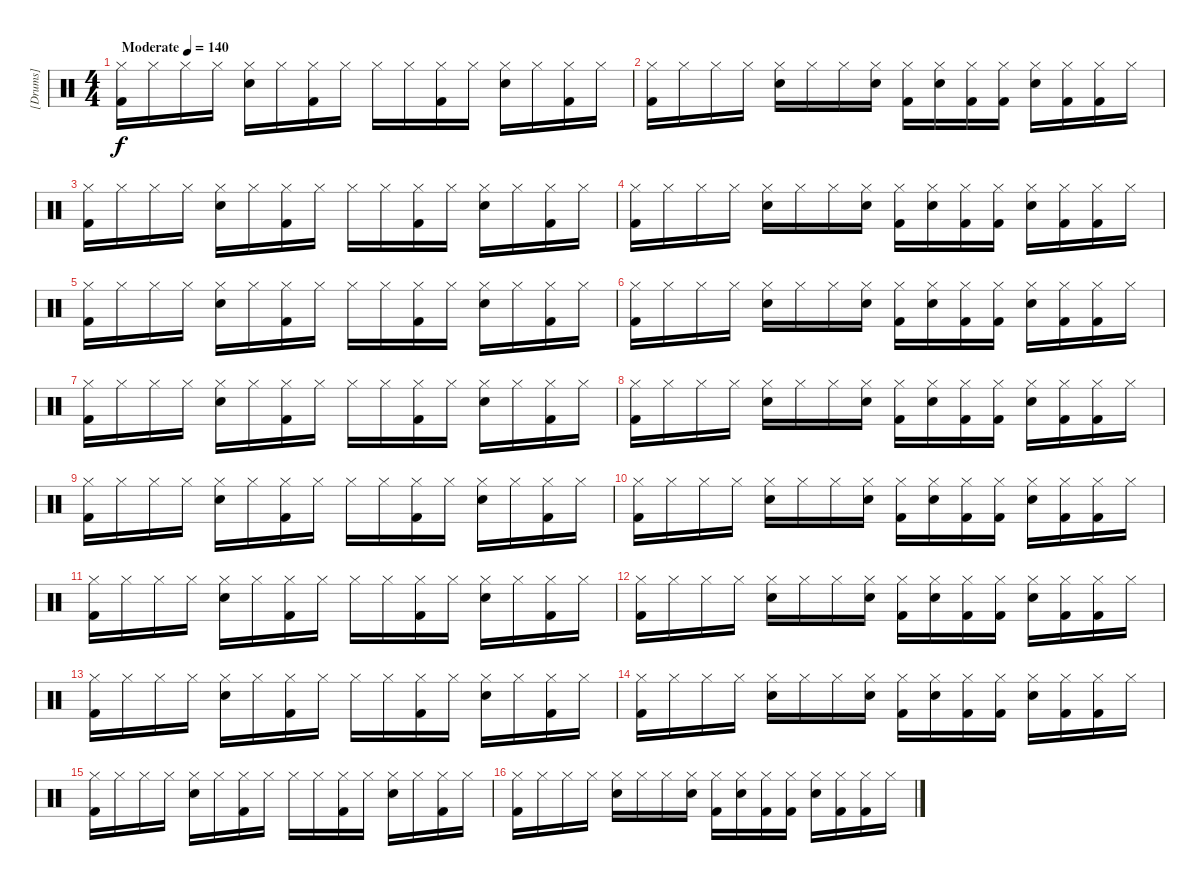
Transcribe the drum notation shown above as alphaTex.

\track ("[Drums]" "[Drums]") {instrument percussion}
\staff {score}
\articulation defaults
\ts (4 4)
\tempo (140 "Moderate")
\clef neutral
\ks c
("Hi-Hat (closed)" "Kick (hit) 2").16{dy f} "Hi-Hat (closed)".16 "Hi-Hat (closed)".16 "Hi-Hat (closed)".16 ("Hi-Hat (closed)" "Electric Snare (hit)").16 "Hi-Hat (closed)".16 ("Hi-Hat (closed)" "Kick (hit) 2").16 "Hi-Hat (closed)".16 "Hi-Hat (closed)".16 "Hi-Hat (closed)".16 ("Hi-Hat (closed)" "Kick (hit) 2").16 "Hi-Hat (closed)".16 ("Hi-Hat (closed)" "Electric Snare (hit)").16 "Hi-Hat (closed)".16 ("Hi-Hat (closed)" "Kick (hit) 2").16 "Hi-Hat (closed)".16 |
("Hi-Hat (closed)" "Kick (hit) 2").16 "Hi-Hat (closed)".16 "Hi-Hat (closed)".16 "Hi-Hat (closed)".16 ("Hi-Hat (closed)" "Electric Snare (hit)").16 "Hi-Hat (closed)".16 "Hi-Hat (closed)".16 ("Hi-Hat (closed)" "Electric Snare (hit)").16 ("Hi-Hat (closed)" "Kick (hit) 2").16 ("Hi-Hat (closed)" "Electric Snare (hit)").16 ("Hi-Hat (closed)" "Kick (hit) 2").16 ("Hi-Hat (closed)" "Kick (hit) 2").16 ("Hi-Hat (closed)" "Electric Snare (hit)").16 ("Hi-Hat (closed)" "Kick (hit) 2").16 ("Hi-Hat (closed)" "Kick (hit) 2").16 "Hi-Hat (closed)".16 |
("Hi-Hat (closed)" "Kick (hit) 2").16 "Hi-Hat (closed)".16 "Hi-Hat (closed)".16 "Hi-Hat (closed)".16 ("Hi-Hat (closed)" "Electric Snare (hit)").16 "Hi-Hat (closed)".16 ("Hi-Hat (closed)" "Kick (hit) 2").16 "Hi-Hat (closed)".16 "Hi-Hat (closed)".16 "Hi-Hat (closed)".16 ("Hi-Hat (closed)" "Kick (hit) 2").16 "Hi-Hat (closed)".16 ("Hi-Hat (closed)" "Electric Snare (hit)").16 "Hi-Hat (closed)".16 ("Hi-Hat (closed)" "Kick (hit) 2").16 "Hi-Hat (closed)".16 |
("Hi-Hat (closed)" "Kick (hit) 2").16 "Hi-Hat (closed)".16 "Hi-Hat (closed)".16 "Hi-Hat (closed)".16 ("Hi-Hat (closed)" "Electric Snare (hit)").16 "Hi-Hat (closed)".16 "Hi-Hat (closed)".16 ("Hi-Hat (closed)" "Electric Snare (hit)").16 ("Hi-Hat (closed)" "Kick (hit) 2").16 ("Hi-Hat (closed)" "Electric Snare (hit)").16 ("Hi-Hat (closed)" "Kick (hit) 2").16 ("Hi-Hat (closed)" "Kick (hit) 2").16 ("Hi-Hat (closed)" "Electric Snare (hit)").16 ("Hi-Hat (closed)" "Kick (hit) 2").16 ("Hi-Hat (closed)" "Kick (hit) 2").16 "Hi-Hat (closed)".16 |
("Hi-Hat (closed)" "Kick (hit) 2").16 "Hi-Hat (closed)".16 "Hi-Hat (closed)".16 "Hi-Hat (closed)".16 ("Hi-Hat (closed)" "Electric Snare (hit)").16 "Hi-Hat (closed)".16 ("Hi-Hat (closed)" "Kick (hit) 2").16 "Hi-Hat (closed)".16 "Hi-Hat (closed)".16 "Hi-Hat (closed)".16 ("Hi-Hat (closed)" "Kick (hit) 2").16 "Hi-Hat (closed)".16 ("Hi-Hat (closed)" "Electric Snare (hit)").16 "Hi-Hat (closed)".16 ("Hi-Hat (closed)" "Kick (hit) 2").16 "Hi-Hat (closed)".16 |
("Hi-Hat (closed)" "Kick (hit) 2").16 "Hi-Hat (closed)".16 "Hi-Hat (closed)".16 "Hi-Hat (closed)".16 ("Hi-Hat (closed)" "Electric Snare (hit)").16 "Hi-Hat (closed)".16 "Hi-Hat (closed)".16 ("Hi-Hat (closed)" "Electric Snare (hit)").16 ("Hi-Hat (closed)" "Kick (hit) 2").16 ("Hi-Hat (closed)" "Electric Snare (hit)").16 ("Hi-Hat (closed)" "Kick (hit) 2").16 ("Hi-Hat (closed)" "Kick (hit) 2").16 ("Hi-Hat (closed)" "Electric Snare (hit)").16 ("Hi-Hat (closed)" "Kick (hit) 2").16 ("Hi-Hat (closed)" "Kick (hit) 2").16 "Hi-Hat (closed)".16 |
("Hi-Hat (closed)" "Kick (hit) 2").16 "Hi-Hat (closed)".16 "Hi-Hat (closed)".16 "Hi-Hat (closed)".16 ("Hi-Hat (closed)" "Electric Snare (hit)").16 "Hi-Hat (closed)".16 ("Hi-Hat (closed)" "Kick (hit) 2").16 "Hi-Hat (closed)".16 "Hi-Hat (closed)".16 "Hi-Hat (closed)".16 ("Hi-Hat (closed)" "Kick (hit) 2").16 "Hi-Hat (closed)".16 ("Hi-Hat (closed)" "Electric Snare (hit)").16 "Hi-Hat (closed)".16 ("Hi-Hat (closed)" "Kick (hit) 2").16 "Hi-Hat (closed)".16 |
("Hi-Hat (closed)" "Kick (hit) 2").16 "Hi-Hat (closed)".16 "Hi-Hat (closed)".16 "Hi-Hat (closed)".16 ("Hi-Hat (closed)" "Electric Snare (hit)").16 "Hi-Hat (closed)".16 "Hi-Hat (closed)".16 ("Hi-Hat (closed)" "Electric Snare (hit)").16 ("Hi-Hat (closed)" "Kick (hit) 2").16 ("Hi-Hat (closed)" "Electric Snare (hit)").16 ("Hi-Hat (closed)" "Kick (hit) 2").16 ("Hi-Hat (closed)" "Kick (hit) 2").16 ("Hi-Hat (closed)" "Electric Snare (hit)").16 ("Hi-Hat (closed)" "Kick (hit) 2").16 ("Hi-Hat (closed)" "Kick (hit) 2").16 "Hi-Hat (closed)".16 |
("Hi-Hat (closed)" "Kick (hit) 2").16 "Hi-Hat (closed)".16 "Hi-Hat (closed)".16 "Hi-Hat (closed)".16 ("Hi-Hat (closed)" "Electric Snare (hit)").16 "Hi-Hat (closed)".16 ("Hi-Hat (closed)" "Kick (hit) 2").16 "Hi-Hat (closed)".16 "Hi-Hat (closed)".16 "Hi-Hat (closed)".16 ("Hi-Hat (closed)" "Kick (hit) 2").16 "Hi-Hat (closed)".16 ("Hi-Hat (closed)" "Electric Snare (hit)").16 "Hi-Hat (closed)".16 ("Hi-Hat (closed)" "Kick (hit) 2").16 "Hi-Hat (closed)".16 |
("Hi-Hat (closed)" "Kick (hit) 2").16 "Hi-Hat (closed)".16 "Hi-Hat (closed)".16 "Hi-Hat (closed)".16 ("Hi-Hat (closed)" "Electric Snare (hit)").16 "Hi-Hat (closed)".16 "Hi-Hat (closed)".16 ("Hi-Hat (closed)" "Electric Snare (hit)").16 ("Hi-Hat (closed)" "Kick (hit) 2").16 ("Hi-Hat (closed)" "Electric Snare (hit)").16 ("Hi-Hat (closed)" "Kick (hit) 2").16 ("Hi-Hat (closed)" "Kick (hit) 2").16 ("Hi-Hat (closed)" "Electric Snare (hit)").16 ("Hi-Hat (closed)" "Kick (hit) 2").16 ("Hi-Hat (closed)" "Kick (hit) 2").16 "Hi-Hat (closed)".16 |
("Hi-Hat (closed)" "Kick (hit) 2").16 "Hi-Hat (closed)".16 "Hi-Hat (closed)".16 "Hi-Hat (closed)".16 ("Hi-Hat (closed)" "Electric Snare (hit)").16 "Hi-Hat (closed)".16 ("Hi-Hat (closed)" "Kick (hit) 2").16 "Hi-Hat (closed)".16 "Hi-Hat (closed)".16 "Hi-Hat (closed)".16 ("Hi-Hat (closed)" "Kick (hit) 2").16 "Hi-Hat (closed)".16 ("Hi-Hat (closed)" "Electric Snare (hit)").16 "Hi-Hat (closed)".16 ("Hi-Hat (closed)" "Kick (hit) 2").16 "Hi-Hat (closed)".16 |
("Hi-Hat (closed)" "Kick (hit) 2").16 "Hi-Hat (closed)".16 "Hi-Hat (closed)".16 "Hi-Hat (closed)".16 ("Hi-Hat (closed)" "Electric Snare (hit)").16 "Hi-Hat (closed)".16 "Hi-Hat (closed)".16 ("Hi-Hat (closed)" "Electric Snare (hit)").16 ("Hi-Hat (closed)" "Kick (hit) 2").16 ("Hi-Hat (closed)" "Electric Snare (hit)").16 ("Hi-Hat (closed)" "Kick (hit) 2").16 ("Hi-Hat (closed)" "Kick (hit) 2").16 ("Hi-Hat (closed)" "Electric Snare (hit)").16 ("Hi-Hat (closed)" "Kick (hit) 2").16 ("Hi-Hat (closed)" "Kick (hit) 2").16 "Hi-Hat (closed)".16 |
("Hi-Hat (closed)" "Kick (hit) 2").16 "Hi-Hat (closed)".16 "Hi-Hat (closed)".16 "Hi-Hat (closed)".16 ("Hi-Hat (closed)" "Electric Snare (hit)").16 "Hi-Hat (closed)".16 ("Hi-Hat (closed)" "Kick (hit) 2").16 "Hi-Hat (closed)".16 "Hi-Hat (closed)".16 "Hi-Hat (closed)".16 ("Hi-Hat (closed)" "Kick (hit) 2").16 "Hi-Hat (closed)".16 ("Hi-Hat (closed)" "Electric Snare (hit)").16 "Hi-Hat (closed)".16 ("Hi-Hat (closed)" "Kick (hit) 2").16 "Hi-Hat (closed)".16 |
("Hi-Hat (closed)" "Kick (hit) 2").16 "Hi-Hat (closed)".16 "Hi-Hat (closed)".16 "Hi-Hat (closed)".16 ("Hi-Hat (closed)" "Electric Snare (hit)").16 "Hi-Hat (closed)".16 "Hi-Hat (closed)".16 ("Hi-Hat (closed)" "Electric Snare (hit)").16 ("Hi-Hat (closed)" "Kick (hit) 2").16 ("Hi-Hat (closed)" "Electric Snare (hit)").16 ("Hi-Hat (closed)" "Kick (hit) 2").16 ("Hi-Hat (closed)" "Kick (hit) 2").16 ("Hi-Hat (closed)" "Electric Snare (hit)").16 ("Hi-Hat (closed)" "Kick (hit) 2").16 ("Hi-Hat (closed)" "Kick (hit) 2").16 "Hi-Hat (closed)".16 |
("Hi-Hat (closed)" "Kick (hit) 2").16 "Hi-Hat (closed)".16 "Hi-Hat (closed)".16 "Hi-Hat (closed)".16 ("Hi-Hat (closed)" "Electric Snare (hit)").16 "Hi-Hat (closed)".16 ("Hi-Hat (closed)" "Kick (hit) 2").16 "Hi-Hat (closed)".16 "Hi-Hat (closed)".16 "Hi-Hat (closed)".16 ("Hi-Hat (closed)" "Kick (hit) 2").16 "Hi-Hat (closed)".16 ("Hi-Hat (closed)" "Electric Snare (hit)").16 "Hi-Hat (closed)".16 ("Hi-Hat (closed)" "Kick (hit) 2").16 "Hi-Hat (closed)".16 |
("Hi-Hat (closed)" "Kick (hit) 2").16 "Hi-Hat (closed)".16 "Hi-Hat (closed)".16 "Hi-Hat (closed)".16 ("Hi-Hat (closed)" "Electric Snare (hit)").16 "Hi-Hat (closed)".16 "Hi-Hat (closed)".16 ("Hi-Hat (closed)" "Electric Snare (hit)").16 ("Hi-Hat (closed)" "Kick (hit) 2").16 ("Hi-Hat (closed)" "Electric Snare (hit)").16 ("Hi-Hat (closed)" "Kick (hit) 2").16 ("Hi-Hat (closed)" "Kick (hit) 2").16 ("Hi-Hat (closed)" "Electric Snare (hit)").16 ("Hi-Hat (closed)" "Kick (hit) 2").16 ("Hi-Hat (closed)" "Kick (hit) 2").16 "Hi-Hat (closed)".16
